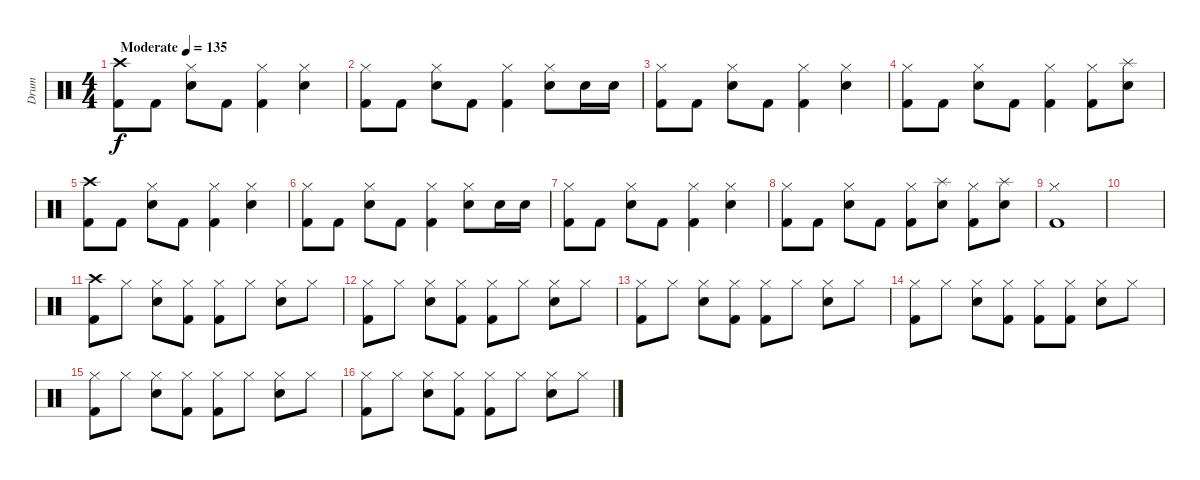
\track ("Drum" "Drum") {instrument percussion}
\staff {score}
\articulation defaults
\ts (4 4)
\tempo (135 "Moderate")
\clef neutral
\ks c
("Crash high (hit)" "Kick (hit) 2").8{dy f} "Kick (hit) 2".8 ("Hi-Hat (closed)" "Electric Snare (hit)").8 "Kick (hit) 2".8 ("Hi-Hat (closed)" "Kick (hit) 2").4 ("Hi-Hat (closed)" "Electric Snare (hit)").4 |
("Hi-Hat (closed)" "Kick (hit) 2").8 "Kick (hit) 2".8 ("Hi-Hat (closed)" "Electric Snare (hit)").8 "Kick (hit) 2".8 ("Hi-Hat (closed)" "Kick (hit) 2").4 ("Hi-Hat (closed)" "Electric Snare (hit)").8 "Electric Snare (hit)".16 "Electric Snare (hit)".16 |
("Hi-Hat (closed)" "Kick (hit) 2").8 "Kick (hit) 2".8 ("Hi-Hat (closed)" "Electric Snare (hit)").8 "Kick (hit) 2".8 ("Hi-Hat (closed)" "Kick (hit) 2").4 ("Hi-Hat (closed)" "Electric Snare (hit)").4 |
("Hi-Hat (closed)" "Kick (hit) 2").8 "Kick (hit) 2".8 ("Hi-Hat (closed)" "Electric Snare (hit)").8 "Kick (hit) 2".8 ("Hi-Hat (closed)" "Kick (hit) 2").4 ("Hi-Hat (closed)" "Kick (hit) 2").8 ("Splash (hit)" "Electric Snare (hit)").8 |
("Crash high (hit)" "Kick (hit) 2").8 "Kick (hit) 2".8 ("Hi-Hat (closed)" "Electric Snare (hit)").8 "Kick (hit) 2".8 ("Hi-Hat (closed)" "Kick (hit) 2").4 ("Hi-Hat (closed)" "Electric Snare (hit)").4 |
("Hi-Hat (closed)" "Kick (hit) 2").8 "Kick (hit) 2".8 ("Hi-Hat (closed)" "Electric Snare (hit)").8 "Kick (hit) 2".8 ("Hi-Hat (closed)" "Kick (hit) 2").4 ("Hi-Hat (closed)" "Electric Snare (hit)").8 "Electric Snare (hit)".16 "Electric Snare (hit)".16 |
("Hi-Hat (closed)" "Kick (hit) 2").8 "Kick (hit) 2".8 ("Hi-Hat (closed)" "Electric Snare (hit)").8 "Kick (hit) 2".8 ("Hi-Hat (closed)" "Kick (hit) 2").4 ("Hi-Hat (closed)" "Electric Snare (hit)").4 |
("Hi-Hat (closed)" "Kick (hit) 2").8 "Kick (hit) 2".8 ("Hi-Hat (closed)" "Electric Snare (hit)").8 "Kick (hit) 2".8 ("Hi-Hat (closed)" "Kick (hit) 2").8 ("Splash (hit)" "Electric Snare (hit)").8 ("Hi-Hat (closed)" "Kick (hit) 2").8 ("Electric Snare (hit)" "Splash (hit)").8 |
("Kick (hit) 2" "Hi-Hat (closed)").1 |
|
("Crash high (hit)" "Kick (hit) 2").8 "Hi-Hat (closed)".8 ("Electric Snare (hit)" "Hi-Hat (closed)").8 ("Kick (hit) 2" "Hi-Hat (closed)").8 ("Kick (hit) 2" "Hi-Hat (closed)").8 "Hi-Hat (closed)".8 ("Electric Snare (hit)" "Hi-Hat (closed)").8 "Hi-Hat (closed)".8 |
("Hi-Hat (closed)" "Kick (hit) 2").8 "Hi-Hat (closed)".8 ("Hi-Hat (closed)" "Electric Snare (hit)").8 ("Hi-Hat (closed)" "Kick (hit) 2").8 ("Hi-Hat (closed)" "Kick (hit) 2").8 "Hi-Hat (closed)".8 ("Electric Snare (hit)" "Hi-Hat (closed)").8 "Hi-Hat (closed)".8 |
("Hi-Hat (closed)" "Kick (hit) 2").8 "Hi-Hat (closed)".8 ("Electric Snare (hit)" "Hi-Hat (closed)").8 ("Kick (hit) 2" "Hi-Hat (closed)").8 ("Kick (hit) 2" "Hi-Hat (closed)").8 "Hi-Hat (closed)".8 ("Electric Snare (hit)" "Hi-Hat (closed)").8 "Hi-Hat (closed)".8 |
("Hi-Hat (closed)" "Kick (hit) 2").8 "Hi-Hat (closed)".8 ("Hi-Hat (closed)" "Electric Snare (hit)").8 ("Hi-Hat (closed)" "Kick (hit) 2").8 ("Hi-Hat (closed)" "Kick (hit) 2").8 ("Hi-Hat (closed)" "Kick (hit) 2").8 ("Electric Snare (hit)" "Hi-Hat (closed)").8 "Hi-Hat (closed)".8 |
("Hi-Hat (closed)" "Kick (hit) 2").8 "Hi-Hat (closed)".8 ("Electric Snare (hit)" "Hi-Hat (closed)").8 ("Kick (hit) 2" "Hi-Hat (closed)").8 ("Kick (hit) 2" "Hi-Hat (closed)").8 "Hi-Hat (closed)".8 ("Electric Snare (hit)" "Hi-Hat (closed)").8 "Hi-Hat (closed)".8 |
("Hi-Hat (closed)" "Kick (hit) 2").8 "Hi-Hat (closed)".8 ("Hi-Hat (closed)" "Electric Snare (hit)").8 ("Hi-Hat (closed)" "Kick (hit) 2").8 ("Hi-Hat (closed)" "Kick (hit) 2").8 "Hi-Hat (closed)".8 ("Electric Snare (hit)" "Hi-Hat (closed)").8 "Hi-Hat (closed)".8
